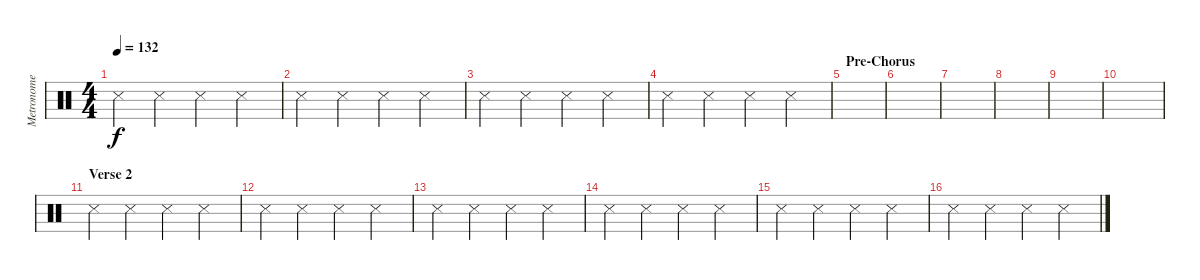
\track ("Metronome" "Metronome") {instrument percussion}
\staff {score}
\articulation defaults
\ts (4 4)
\tempo 132
\clef neutral
\ks c "Metronome (hit)".4{dy f} "Metronome (hit)".4 "Metronome (hit)".4 "Metronome (hit)".4
|
"Metronome (hit)".4 "Metronome (hit)".4 "Metronome (hit)".4 "Metronome (hit)".4 |
"Metronome (hit)".4 "Metronome (hit)".4 "Metronome (hit)".4 "Metronome (hit)".4 |
"Metronome (hit)".4 "Metronome (hit)".4 "Metronome (hit)".4 "Metronome (hit)".4 |
\section ("" "Pre-Chorus")
|
|
|
|
|
|
\section ("" "Verse 2")
"Metronome (hit)".4 "Metronome (hit)".4 "Metronome (hit)".4 "Metronome (hit)".4 |
"Metronome (hit)".4 "Metronome (hit)".4 "Metronome (hit)".4 "Metronome (hit)".4 |
"Metronome (hit)".4 "Metronome (hit)".4 "Metronome (hit)".4 "Metronome (hit)".4 |
"Metronome (hit)".4 "Metronome (hit)".4 "Metronome (hit)".4 "Metronome (hit)".4 |
"Metronome (hit)".4 "Metronome (hit)".4 "Metronome (hit)".4 "Metronome (hit)".4 |
"Metronome (hit)".4 "Metronome (hit)".4 "Metronome (hit)".4 "Metronome (hit)".4
